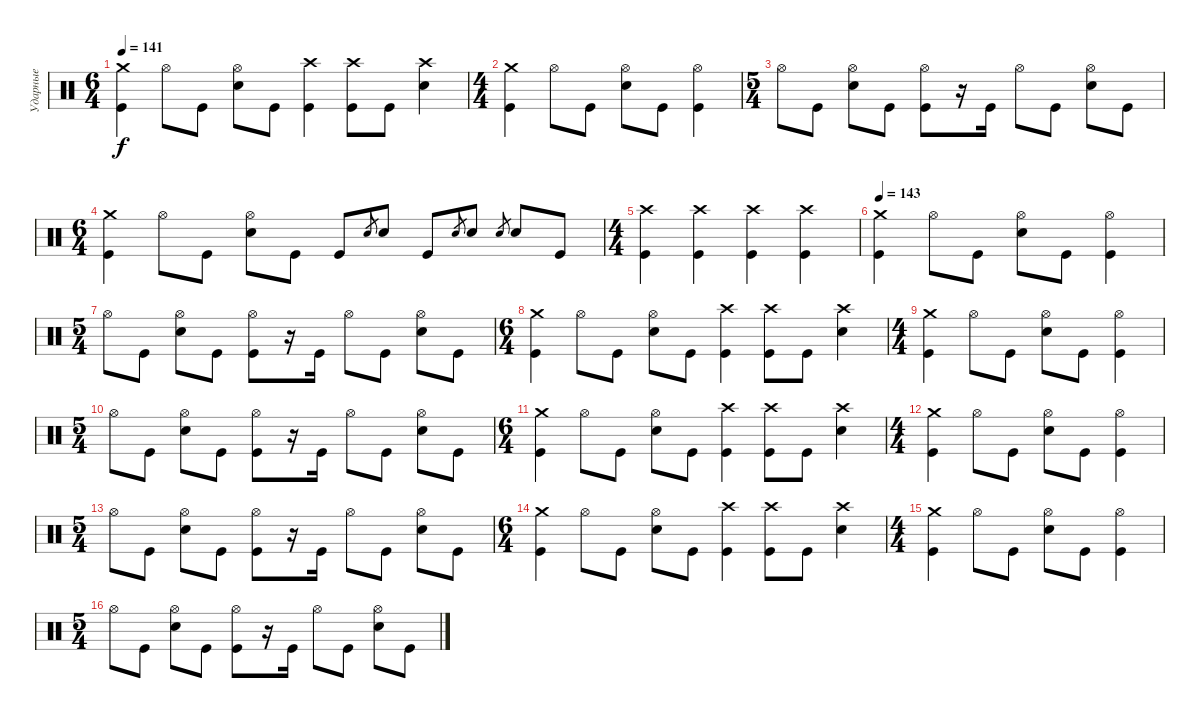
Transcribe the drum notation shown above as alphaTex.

\track ("Ударные" "Ударные") {instrument percussion}
\staff {score}
\articulation defaults
\ts (6 4)
\tempo 141
\clef neutral
\ks c
("Crash medium (hit)" "Kick (hit)").4{dy f} "Hi-Hat (open)".8 "Kick (hit)".8 ("Hi-Hat (open)" "Electric Snare (hit)").8 "Kick (hit)".8 ("Crash high (hit)" "Kick (hit)").4 ("Crash high (hit)" "Kick (hit)").8 "Kick (hit)".8 ("Crash high (hit)" "Electric Snare (hit)").4 |
\ts (4 4)
("Crash medium (hit)" "Kick (hit)").4 "Hi-Hat (open)".8 "Kick (hit)".8 ("Hi-Hat (open)" "Electric Snare (hit)").8 "Kick (hit)".8 ("Hi-Hat (open)" "Kick (hit)").4 |
\ts (5 4)
"Hi-Hat (open)".8 "Kick (hit)".8 ("Hi-Hat (open)" "Electric Snare (hit)").8 "Kick (hit)".8 ("Hi-Hat (open)" "Kick (hit)").8 r.16 "Kick (hit)".16 "Hi-Hat (open)".8 "Kick (hit)".8 ("Hi-Hat (open)" "Electric Snare (hit)").8 "Kick (hit)".8 |
\ts (6 4)
("Crash medium (hit)" "Kick (hit)").4 "Hi-Hat (open)".8 "Kick (hit)".8 ("Hi-Hat (open)" "Electric Snare (hit)").8 "Kick (hit)".8 "Kick (hit)".8 "Electric Snare (hit)".8{gr} "Electric Snare (hit)".8 "Kick (hit)".8 "Electric Snare (hit)".8{gr} "Electric Snare (hit)".8 "Electric Snare (hit)".8{gr} "Electric Snare (hit)".8 "Kick (hit)".8 |
\ts (4 4)
("Crash high (hit)" "Kick (hit)").4 ("Crash high (hit)" "Kick (hit)").4 ("Crash high (hit)" "Kick (hit)").4 ("Crash high (hit)" "Kick (hit)").4 |
\tempo 143
("Crash medium (hit)" "Kick (hit)").4 "Hi-Hat (open)".8 "Kick (hit)".8 ("Hi-Hat (open)" "Electric Snare (hit)").8 "Kick (hit)".8 ("Hi-Hat (open)" "Kick (hit)").4 |
\ts (5 4)
"Hi-Hat (open)".8 "Kick (hit)".8 ("Hi-Hat (open)" "Electric Snare (hit)").8 "Kick (hit)".8 ("Hi-Hat (open)" "Kick (hit)").8 r.16 "Kick (hit)".16 "Hi-Hat (open)".8 "Kick (hit)".8 ("Hi-Hat (open)" "Electric Snare (hit)").8 "Kick (hit)".8 |
\ts (6 4)
("Crash medium (hit)" "Kick (hit)").4 "Hi-Hat (open)".8 "Kick (hit)".8 ("Hi-Hat (open)" "Electric Snare (hit)").8 "Kick (hit)".8 ("Crash high (hit)" "Kick (hit)").4 ("Crash high (hit)" "Kick (hit)").8 "Kick (hit)".8 ("Crash high (hit)" "Electric Snare (hit)").4 |
\ts (4 4)
("Crash medium (hit)" "Kick (hit)").4 "Hi-Hat (open)".8 "Kick (hit)".8 ("Hi-Hat (open)" "Electric Snare (hit)").8 "Kick (hit)".8 ("Hi-Hat (open)" "Kick (hit)").4 |
\ts (5 4)
"Hi-Hat (open)".8 "Kick (hit)".8 ("Hi-Hat (open)" "Electric Snare (hit)").8 "Kick (hit)".8 ("Hi-Hat (open)" "Kick (hit)").8 r.16 "Kick (hit)".16 "Hi-Hat (open)".8 "Kick (hit)".8 ("Hi-Hat (open)" "Electric Snare (hit)").8 "Kick (hit)".8 |
\ts (6 4)
("Crash medium (hit)" "Kick (hit)").4 "Hi-Hat (open)".8 "Kick (hit)".8 ("Hi-Hat (open)" "Electric Snare (hit)").8 "Kick (hit)".8 ("Crash high (hit)" "Kick (hit)").4 ("Crash high (hit)" "Kick (hit)").8 "Kick (hit)".8 ("Crash high (hit)" "Electric Snare (hit)").4 |
\ts (4 4)
("Crash medium (hit)" "Kick (hit)").4 "Hi-Hat (open)".8 "Kick (hit)".8 ("Hi-Hat (open)" "Electric Snare (hit)").8 "Kick (hit)".8 ("Hi-Hat (open)" "Kick (hit)").4 |
\ts (5 4)
"Hi-Hat (open)".8 "Kick (hit)".8 ("Hi-Hat (open)" "Electric Snare (hit)").8 "Kick (hit)".8 ("Hi-Hat (open)" "Kick (hit)").8 r.16 "Kick (hit)".16 "Hi-Hat (open)".8 "Kick (hit)".8 ("Hi-Hat (open)" "Electric Snare (hit)").8 "Kick (hit)".8 |
\ts (6 4)
("Crash medium (hit)" "Kick (hit)").4 "Hi-Hat (open)".8 "Kick (hit)".8 ("Hi-Hat (open)" "Electric Snare (hit)").8 "Kick (hit)".8 ("Crash high (hit)" "Kick (hit)").4 ("Crash high (hit)" "Kick (hit)").8 "Kick (hit)".8 ("Crash high (hit)" "Electric Snare (hit)").4 |
\ts (4 4)
("Crash medium (hit)" "Kick (hit)").4 "Hi-Hat (open)".8 "Kick (hit)".8 ("Hi-Hat (open)" "Electric Snare (hit)").8 "Kick (hit)".8 ("Hi-Hat (open)" "Kick (hit)").4 |
\ts (5 4)
"Hi-Hat (open)".8 "Kick (hit)".8 ("Hi-Hat (open)" "Electric Snare (hit)").8 "Kick (hit)".8 ("Hi-Hat (open)" "Kick (hit)").8 r.16 "Kick (hit)".16 "Hi-Hat (open)".8 "Kick (hit)".8 ("Hi-Hat (open)" "Electric Snare (hit)").8 "Kick (hit)".8
